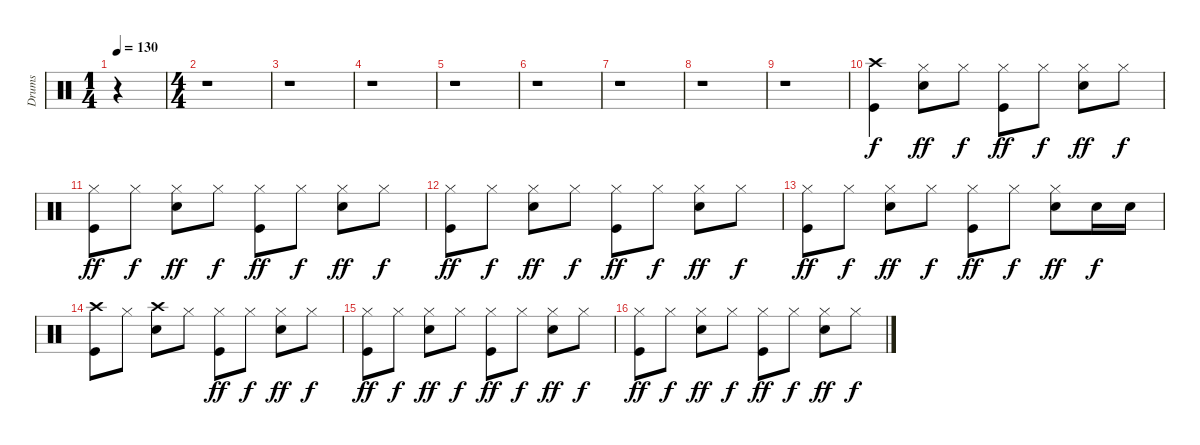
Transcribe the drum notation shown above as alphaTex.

\track ("Drums" "Drums") {instrument percussion}
\staff {score}
\articulation defaults
\ts (1 4)
\tempo 130
\clef neutral
\ks c
r.4{dy f} |
\ts (4 4)
r.1 |
r.1 |
r.1 |
r.1 |
r.1 |
r.1 |
r.1 |
r.1 |
("Crash high (hit)" "Kick (hit)").4 ("Hi-Hat (closed)" "Snare (hit) 2").8{dy ff} "Hi-Hat (closed)".8{dy f} ("Hi-Hat (closed)" "Kick (hit)").8{dy ff} "Hi-Hat (closed)".8{dy f} ("Hi-Hat (closed)" "Snare (hit) 2").8{dy ff} "Hi-Hat (closed)".8{dy f} |
("Hi-Hat (closed)" "Kick (hit)").8{dy ff} "Hi-Hat (closed)".8{dy f} ("Hi-Hat (closed)" "Snare (hit) 2").8{dy ff} "Hi-Hat (closed)".8{dy f} ("Hi-Hat (closed)" "Kick (hit)").8{dy ff} "Hi-Hat (closed)".8{dy f} ("Hi-Hat (closed)" "Snare (hit) 2").8{dy ff} "Hi-Hat (closed)".8{dy f} |
("Hi-Hat (closed)" "Kick (hit)").8{dy ff} "Hi-Hat (closed)".8{dy f} ("Hi-Hat (closed)" "Snare (hit) 2").8{dy ff} "Hi-Hat (closed)".8{dy f} ("Hi-Hat (closed)" "Kick (hit)").8{dy ff} "Hi-Hat (closed)".8{dy f} ("Hi-Hat (closed)" "Snare (hit) 2").8{dy ff} "Hi-Hat (closed)".8{dy f} |
("Hi-Hat (closed)" "Kick (hit)").8{dy ff} "Hi-Hat (closed)".8{dy f} ("Hi-Hat (closed)" "Snare (hit) 2").8{dy ff} "Hi-Hat (closed)".8{dy f} ("Hi-Hat (closed)" "Kick (hit)").8{dy ff} "Hi-Hat (closed)".8{dy f} ("Hi-Hat (closed)" "Snare (hit) 2").8{dy ff} "Snare (hit) 2".16{dy f} "Snare (hit) 2".16 |
("Crash high (hit)" "Kick (hit)").8 "Hi-Hat (closed)".8 ("Crash high (hit)" "Snare (hit) 2").8 "Hi-Hat (closed)".8 ("Hi-Hat (closed)" "Kick (hit)").8{dy ff} "Hi-Hat (closed)".8{dy f} ("Hi-Hat (closed)" "Snare (hit) 2").8{dy ff} "Hi-Hat (closed)".8{dy f} |
("Hi-Hat (closed)" "Kick (hit)").8{dy ff} "Hi-Hat (closed)".8{dy f} ("Hi-Hat (closed)" "Snare (hit) 2").8{dy ff} "Hi-Hat (closed)".8{dy f} ("Hi-Hat (closed)" "Kick (hit)").8{dy ff} "Hi-Hat (closed)".8{dy f} ("Hi-Hat (closed)" "Snare (hit) 2").8{dy ff} "Hi-Hat (closed)".8{dy f} |
("Hi-Hat (closed)" "Kick (hit)").8{dy ff} "Hi-Hat (closed)".8{dy f} ("Hi-Hat (closed)" "Snare (hit) 2").8{dy ff} "Hi-Hat (closed)".8{dy f} ("Hi-Hat (closed)" "Kick (hit)").8{dy ff} "Hi-Hat (closed)".8{dy f} ("Hi-Hat (closed)" "Snare (hit) 2").8{dy ff} "Hi-Hat (closed)".8{dy f}
